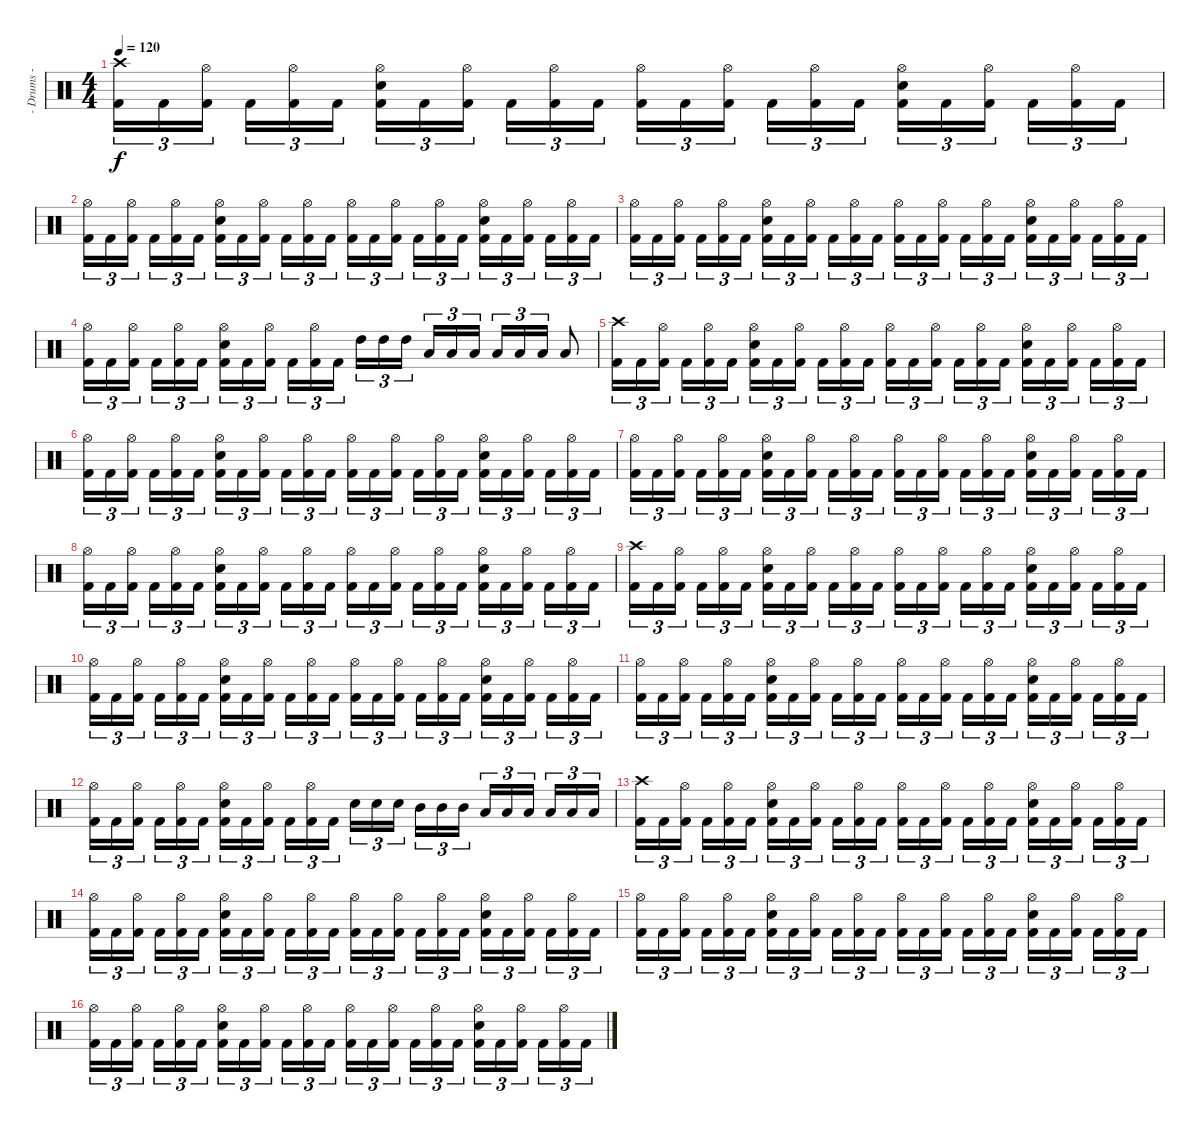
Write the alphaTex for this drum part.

\track ("- Drums -" "- Drums -") {instrument percussion}
\staff {score}
\articulation defaults
\ts (4 4)
\tempo 120
\clef neutral
\ks c
("Crash high (hit)" "Kick (hit) 2").16{tu (3 2) dy f} "Kick (hit) 2".16{tu (3 2)} ("Hi-Hat (open)" "Kick (hit) 2").16{tu (3 2)} "Kick (hit) 2".16{tu (3 2)} ("Hi-Hat (open)" "Kick (hit) 2").16{tu (3 2)} "Kick (hit) 2".16{tu (3 2)} ("Hi-Hat (open)" "Electric Snare (hit)" "Kick (hit) 2").16{tu (3 2)} "Kick (hit) 2".16{tu (3 2)} ("Hi-Hat (open)" "Kick (hit) 2").16{tu (3 2)} "Kick (hit) 2".16{tu (3 2)} ("Hi-Hat (open)" "Kick (hit) 2").16{tu (3 2)} "Kick (hit) 2".16{tu (3 2)} ("Hi-Hat (open)" "Kick (hit) 2").16{tu (3 2)} "Kick (hit) 2".16{tu (3 2)} ("Hi-Hat (open)" "Kick (hit) 2").16{tu (3 2)} "Kick (hit) 2".16{tu (3 2)} ("Hi-Hat (open)" "Kick (hit) 2").16{tu (3 2)} "Kick (hit) 2".16{tu (3 2)} ("Hi-Hat (open)" "Electric Snare (hit)" "Kick (hit) 2").16{tu (3 2)} "Kick (hit) 2".16{tu (3 2)} ("Hi-Hat (open)" "Kick (hit) 2").16{tu (3 2)} "Kick (hit) 2".16{tu (3 2)} ("Hi-Hat (open)" "Kick (hit) 2").16{tu (3 2)} "Kick (hit) 2".16{tu (3 2)} |
("Hi-Hat (open)" "Kick (hit) 2").16{tu (3 2)} "Kick (hit) 2".16{tu (3 2)} ("Hi-Hat (open)" "Kick (hit) 2").16{tu (3 2)} "Kick (hit) 2".16{tu (3 2)} ("Hi-Hat (open)" "Kick (hit) 2").16{tu (3 2)} "Kick (hit) 2".16{tu (3 2)} ("Hi-Hat (open)" "Electric Snare (hit)" "Kick (hit) 2").16{tu (3 2)} "Kick (hit) 2".16{tu (3 2)} ("Hi-Hat (open)" "Kick (hit) 2").16{tu (3 2)} "Kick (hit) 2".16{tu (3 2)} ("Hi-Hat (open)" "Kick (hit) 2").16{tu (3 2)} "Kick (hit) 2".16{tu (3 2)} ("Hi-Hat (open)" "Kick (hit) 2").16{tu (3 2)} "Kick (hit) 2".16{tu (3 2)} ("Hi-Hat (open)" "Kick (hit) 2").16{tu (3 2)} "Kick (hit) 2".16{tu (3 2)} ("Hi-Hat (open)" "Kick (hit) 2").16{tu (3 2)} "Kick (hit) 2".16{tu (3 2)} ("Hi-Hat (open)" "Electric Snare (hit)" "Kick (hit) 2").16{tu (3 2)} "Kick (hit) 2".16{tu (3 2)} ("Hi-Hat (open)" "Kick (hit) 2").16{tu (3 2)} "Kick (hit) 2".16{tu (3 2)} ("Hi-Hat (open)" "Kick (hit) 2").16{tu (3 2)} "Kick (hit) 2".16{tu (3 2)} |
("Hi-Hat (open)" "Kick (hit) 2").16{tu (3 2)} "Kick (hit) 2".16{tu (3 2)} ("Hi-Hat (open)" "Kick (hit) 2").16{tu (3 2)} "Kick (hit) 2".16{tu (3 2)} ("Hi-Hat (open)" "Kick (hit) 2").16{tu (3 2)} "Kick (hit) 2".16{tu (3 2)} ("Hi-Hat (open)" "Electric Snare (hit)" "Kick (hit) 2").16{tu (3 2)} "Kick (hit) 2".16{tu (3 2)} ("Hi-Hat (open)" "Kick (hit) 2").16{tu (3 2)} "Kick (hit) 2".16{tu (3 2)} ("Hi-Hat (open)" "Kick (hit) 2").16{tu (3 2)} "Kick (hit) 2".16{tu (3 2)} ("Hi-Hat (open)" "Kick (hit) 2").16{tu (3 2)} "Kick (hit) 2".16{tu (3 2)} ("Hi-Hat (open)" "Kick (hit) 2").16{tu (3 2)} "Kick (hit) 2".16{tu (3 2)} ("Hi-Hat (open)" "Kick (hit) 2").16{tu (3 2)} "Kick (hit) 2".16{tu (3 2)} ("Hi-Hat (open)" "Electric Snare (hit)" "Kick (hit) 2").16{tu (3 2)} "Kick (hit) 2".16{tu (3 2)} ("Hi-Hat (open)" "Kick (hit) 2").16{tu (3 2)} "Kick (hit) 2".16{tu (3 2)} ("Hi-Hat (open)" "Kick (hit) 2").16{tu (3 2)} "Kick (hit) 2".16{tu (3 2)} |
("Hi-Hat (open)" "Kick (hit) 2").16{tu (3 2)} "Kick (hit) 2".16{tu (3 2)} ("Hi-Hat (open)" "Kick (hit) 2").16{tu (3 2)} "Kick (hit) 2".16{tu (3 2)} ("Hi-Hat (open)" "Kick (hit) 2").16{tu (3 2)} "Kick (hit) 2".16{tu (3 2)} ("Hi-Hat (open)" "Electric Snare (hit)" "Kick (hit) 2").16{tu (3 2)} "Kick (hit) 2".16{tu (3 2)} ("Hi-Hat (open)" "Kick (hit) 2").16{tu (3 2)} "Kick (hit) 2".16{tu (3 2)} ("Hi-Hat (open)" "Kick (hit) 2").16{tu (3 2)} "Kick (hit) 2".16{tu (3 2)} "High Tom (hit)".16{tu (3 2)} "High Tom (hit)".16{tu (3 2)} "High Tom (hit)".16{tu (3 2)} "Low Tom (hit)".16{tu (3 2)} "Low Tom (hit)".16{tu (3 2)} "Low Tom (hit)".16{tu (3 2)} "Low Floor Tom (hit)".16{tu (3 2)} "Low Floor Tom (hit)".16{tu (3 2)} "Low Floor Tom (hit)".16{tu (3 2)} "Low Floor Tom (hit)".8 |
("Crash high (hit)" "Kick (hit) 2").16{tu (3 2)} "Kick (hit) 2".16{tu (3 2)} ("Hi-Hat (open)" "Kick (hit) 2").16{tu (3 2)} "Kick (hit) 2".16{tu (3 2)} ("Hi-Hat (open)" "Kick (hit) 2").16{tu (3 2)} "Kick (hit) 2".16{tu (3 2)} ("Hi-Hat (open)" "Electric Snare (hit)" "Kick (hit) 2").16{tu (3 2)} "Kick (hit) 2".16{tu (3 2)} ("Hi-Hat (open)" "Kick (hit) 2").16{tu (3 2)} "Kick (hit) 2".16{tu (3 2)} ("Hi-Hat (open)" "Kick (hit) 2").16{tu (3 2)} "Kick (hit) 2".16{tu (3 2)} ("Hi-Hat (open)" "Kick (hit) 2").16{tu (3 2)} "Kick (hit) 2".16{tu (3 2)} ("Hi-Hat (open)" "Kick (hit) 2").16{tu (3 2)} "Kick (hit) 2".16{tu (3 2)} ("Hi-Hat (open)" "Kick (hit) 2").16{tu (3 2)} "Kick (hit) 2".16{tu (3 2)} ("Hi-Hat (open)" "Electric Snare (hit)" "Kick (hit) 2").16{tu (3 2)} "Kick (hit) 2".16{tu (3 2)} ("Hi-Hat (open)" "Kick (hit) 2").16{tu (3 2)} "Kick (hit) 2".16{tu (3 2)} ("Hi-Hat (open)" "Kick (hit) 2").16{tu (3 2)} "Kick (hit) 2".16{tu (3 2)} |
("Hi-Hat (open)" "Kick (hit) 2").16{tu (3 2)} "Kick (hit) 2".16{tu (3 2)} ("Hi-Hat (open)" "Kick (hit) 2").16{tu (3 2)} "Kick (hit) 2".16{tu (3 2)} ("Hi-Hat (open)" "Kick (hit) 2").16{tu (3 2)} "Kick (hit) 2".16{tu (3 2)} ("Hi-Hat (open)" "Electric Snare (hit)" "Kick (hit) 2").16{tu (3 2)} "Kick (hit) 2".16{tu (3 2)} ("Hi-Hat (open)" "Kick (hit) 2").16{tu (3 2)} "Kick (hit) 2".16{tu (3 2)} ("Hi-Hat (open)" "Kick (hit) 2").16{tu (3 2)} "Kick (hit) 2".16{tu (3 2)} ("Hi-Hat (open)" "Kick (hit) 2").16{tu (3 2)} "Kick (hit) 2".16{tu (3 2)} ("Hi-Hat (open)" "Kick (hit) 2").16{tu (3 2)} "Kick (hit) 2".16{tu (3 2)} ("Hi-Hat (open)" "Kick (hit) 2").16{tu (3 2)} "Kick (hit) 2".16{tu (3 2)} ("Hi-Hat (open)" "Electric Snare (hit)" "Kick (hit) 2").16{tu (3 2)} "Kick (hit) 2".16{tu (3 2)} ("Hi-Hat (open)" "Kick (hit) 2").16{tu (3 2)} "Kick (hit) 2".16{tu (3 2)} ("Hi-Hat (open)" "Kick (hit) 2").16{tu (3 2)} "Kick (hit) 2".16{tu (3 2)} |
("Hi-Hat (open)" "Kick (hit) 2").16{tu (3 2)} "Kick (hit) 2".16{tu (3 2)} ("Hi-Hat (open)" "Kick (hit) 2").16{tu (3 2)} "Kick (hit) 2".16{tu (3 2)} ("Hi-Hat (open)" "Kick (hit) 2").16{tu (3 2)} "Kick (hit) 2".16{tu (3 2)} ("Hi-Hat (open)" "Electric Snare (hit)" "Kick (hit) 2").16{tu (3 2)} "Kick (hit) 2".16{tu (3 2)} ("Hi-Hat (open)" "Kick (hit) 2").16{tu (3 2)} "Kick (hit) 2".16{tu (3 2)} ("Hi-Hat (open)" "Kick (hit) 2").16{tu (3 2)} "Kick (hit) 2".16{tu (3 2)} ("Hi-Hat (open)" "Kick (hit) 2").16{tu (3 2)} "Kick (hit) 2".16{tu (3 2)} ("Hi-Hat (open)" "Kick (hit) 2").16{tu (3 2)} "Kick (hit) 2".16{tu (3 2)} ("Hi-Hat (open)" "Kick (hit) 2").16{tu (3 2)} "Kick (hit) 2".16{tu (3 2)} ("Hi-Hat (open)" "Electric Snare (hit)" "Kick (hit) 2").16{tu (3 2)} "Kick (hit) 2".16{tu (3 2)} ("Hi-Hat (open)" "Kick (hit) 2").16{tu (3 2)} "Kick (hit) 2".16{tu (3 2)} ("Hi-Hat (open)" "Kick (hit) 2").16{tu (3 2)} "Kick (hit) 2".16{tu (3 2)} |
("Hi-Hat (open)" "Kick (hit) 2").16{tu (3 2)} "Kick (hit) 2".16{tu (3 2)} ("Hi-Hat (open)" "Kick (hit) 2").16{tu (3 2)} "Kick (hit) 2".16{tu (3 2)} ("Hi-Hat (open)" "Kick (hit) 2").16{tu (3 2)} "Kick (hit) 2".16{tu (3 2)} ("Hi-Hat (open)" "Electric Snare (hit)" "Kick (hit) 2").16{tu (3 2)} "Kick (hit) 2".16{tu (3 2)} ("Hi-Hat (open)" "Kick (hit) 2").16{tu (3 2)} "Kick (hit) 2".16{tu (3 2)} ("Hi-Hat (open)" "Kick (hit) 2").16{tu (3 2)} "Kick (hit) 2".16{tu (3 2)} ("Hi-Hat (open)" "Kick (hit) 2").16{tu (3 2)} "Kick (hit) 2".16{tu (3 2)} ("Hi-Hat (open)" "Kick (hit) 2").16{tu (3 2)} "Kick (hit) 2".16{tu (3 2)} ("Hi-Hat (open)" "Kick (hit) 2").16{tu (3 2)} "Kick (hit) 2".16{tu (3 2)} ("Hi-Hat (open)" "Electric Snare (hit)" "Kick (hit) 2").16{tu (3 2)} "Kick (hit) 2".16{tu (3 2)} ("Hi-Hat (open)" "Kick (hit) 2").16{tu (3 2)} "Kick (hit) 2".16{tu (3 2)} ("Hi-Hat (open)" "Kick (hit) 2").16{tu (3 2)} "Kick (hit) 2".16{tu (3 2)} |
("Crash high (hit)" "Kick (hit) 2").16{tu (3 2)} "Kick (hit) 2".16{tu (3 2)} ("Hi-Hat (open)" "Kick (hit) 2").16{tu (3 2)} "Kick (hit) 2".16{tu (3 2)} ("Hi-Hat (open)" "Kick (hit) 2").16{tu (3 2)} "Kick (hit) 2".16{tu (3 2)} ("Hi-Hat (open)" "Electric Snare (hit)" "Kick (hit) 2").16{tu (3 2)} "Kick (hit) 2".16{tu (3 2)} ("Hi-Hat (open)" "Kick (hit) 2").16{tu (3 2)} "Kick (hit) 2".16{tu (3 2)} ("Hi-Hat (open)" "Kick (hit) 2").16{tu (3 2)} "Kick (hit) 2".16{tu (3 2)} ("Hi-Hat (open)" "Kick (hit) 2").16{tu (3 2)} "Kick (hit) 2".16{tu (3 2)} ("Hi-Hat (open)" "Kick (hit) 2").16{tu (3 2)} "Kick (hit) 2".16{tu (3 2)} ("Hi-Hat (open)" "Kick (hit) 2").16{tu (3 2)} "Kick (hit) 2".16{tu (3 2)} ("Hi-Hat (open)" "Electric Snare (hit)" "Kick (hit) 2").16{tu (3 2)} "Kick (hit) 2".16{tu (3 2)} ("Hi-Hat (open)" "Kick (hit) 2").16{tu (3 2)} "Kick (hit) 2".16{tu (3 2)} ("Hi-Hat (open)" "Kick (hit) 2").16{tu (3 2)} "Kick (hit) 2".16{tu (3 2)} |
("Hi-Hat (open)" "Kick (hit) 2").16{tu (3 2)} "Kick (hit) 2".16{tu (3 2)} ("Hi-Hat (open)" "Kick (hit) 2").16{tu (3 2)} "Kick (hit) 2".16{tu (3 2)} ("Hi-Hat (open)" "Kick (hit) 2").16{tu (3 2)} "Kick (hit) 2".16{tu (3 2)} ("Hi-Hat (open)" "Electric Snare (hit)" "Kick (hit) 2").16{tu (3 2)} "Kick (hit) 2".16{tu (3 2)} ("Hi-Hat (open)" "Kick (hit) 2").16{tu (3 2)} "Kick (hit) 2".16{tu (3 2)} ("Hi-Hat (open)" "Kick (hit) 2").16{tu (3 2)} "Kick (hit) 2".16{tu (3 2)} ("Hi-Hat (open)" "Kick (hit) 2").16{tu (3 2)} "Kick (hit) 2".16{tu (3 2)} ("Hi-Hat (open)" "Kick (hit) 2").16{tu (3 2)} "Kick (hit) 2".16{tu (3 2)} ("Hi-Hat (open)" "Kick (hit) 2").16{tu (3 2)} "Kick (hit) 2".16{tu (3 2)} ("Hi-Hat (open)" "Electric Snare (hit)" "Kick (hit) 2").16{tu (3 2)} "Kick (hit) 2".16{tu (3 2)} ("Hi-Hat (open)" "Kick (hit) 2").16{tu (3 2)} "Kick (hit) 2".16{tu (3 2)} ("Hi-Hat (open)" "Kick (hit) 2").16{tu (3 2)} "Kick (hit) 2".16{tu (3 2)} |
("Hi-Hat (open)" "Kick (hit) 2").16{tu (3 2)} "Kick (hit) 2".16{tu (3 2)} ("Hi-Hat (open)" "Kick (hit) 2").16{tu (3 2)} "Kick (hit) 2".16{tu (3 2)} ("Hi-Hat (open)" "Kick (hit) 2").16{tu (3 2)} "Kick (hit) 2".16{tu (3 2)} ("Hi-Hat (open)" "Electric Snare (hit)" "Kick (hit) 2").16{tu (3 2)} "Kick (hit) 2".16{tu (3 2)} ("Hi-Hat (open)" "Kick (hit) 2").16{tu (3 2)} "Kick (hit) 2".16{tu (3 2)} ("Hi-Hat (open)" "Kick (hit) 2").16{tu (3 2)} "Kick (hit) 2".16{tu (3 2)} ("Hi-Hat (open)" "Kick (hit) 2").16{tu (3 2)} "Kick (hit) 2".16{tu (3 2)} ("Hi-Hat (open)" "Kick (hit) 2").16{tu (3 2)} "Kick (hit) 2".16{tu (3 2)} ("Hi-Hat (open)" "Kick (hit) 2").16{tu (3 2)} "Kick (hit) 2".16{tu (3 2)} ("Hi-Hat (open)" "Electric Snare (hit)" "Kick (hit) 2").16{tu (3 2)} "Kick (hit) 2".16{tu (3 2)} ("Hi-Hat (open)" "Kick (hit) 2").16{tu (3 2)} "Kick (hit) 2".16{tu (3 2)} ("Hi-Hat (open)" "Kick (hit) 2").16{tu (3 2)} "Kick (hit) 2".16{tu (3 2)} |
("Hi-Hat (open)" "Kick (hit) 2").16{tu (3 2)} "Kick (hit) 2".16{tu (3 2)} ("Hi-Hat (open)" "Kick (hit) 2").16{tu (3 2)} "Kick (hit) 2".16{tu (3 2)} ("Hi-Hat (open)" "Kick (hit) 2").16{tu (3 2)} "Kick (hit) 2".16{tu (3 2)} ("Hi-Hat (open)" "Electric Snare (hit)" "Kick (hit) 2").16{tu (3 2)} "Kick (hit) 2".16{tu (3 2)} ("Hi-Hat (open)" "Kick (hit) 2").16{tu (3 2)} "Kick (hit) 2".16{tu (3 2)} ("Hi-Hat (open)" "Kick (hit) 2").16{tu (3 2)} "Kick (hit) 2".16{tu (3 2)} "Electric Snare (hit)".16{tu (3 2)} "Electric Snare (hit)".16{tu (3 2)} "Electric Snare (hit)".16{tu (3 2)} "Mid Tom (hit)".16{tu (3 2)} "Mid Tom (hit)".16{tu (3 2)} "Mid Tom (hit)".16{tu (3 2)} "Low Tom (hit)".16{tu (3 2)} "Low Tom (hit)".16{tu (3 2)} "Low Tom (hit)".16{tu (3 2)} "Low Floor Tom (hit)".16{tu (3 2)} "Low Floor Tom (hit)".16{tu (3 2)} "Low Floor Tom (hit)".16{tu (3 2)} |
("Crash high (hit)" "Kick (hit) 2").16{tu (3 2)} "Kick (hit) 2".16{tu (3 2)} ("Hi-Hat (open)" "Kick (hit) 2").16{tu (3 2)} "Kick (hit) 2".16{tu (3 2)} ("Hi-Hat (open)" "Kick (hit) 2").16{tu (3 2)} "Kick (hit) 2".16{tu (3 2)} ("Hi-Hat (open)" "Electric Snare (hit)" "Kick (hit) 2").16{tu (3 2)} "Kick (hit) 2".16{tu (3 2)} ("Hi-Hat (open)" "Kick (hit) 2").16{tu (3 2)} "Kick (hit) 2".16{tu (3 2)} ("Hi-Hat (open)" "Kick (hit) 2").16{tu (3 2)} "Kick (hit) 2".16{tu (3 2)} ("Hi-Hat (open)" "Kick (hit) 2").16{tu (3 2)} "Kick (hit) 2".16{tu (3 2)} ("Hi-Hat (open)" "Kick (hit) 2").16{tu (3 2)} "Kick (hit) 2".16{tu (3 2)} ("Hi-Hat (open)" "Kick (hit) 2").16{tu (3 2)} "Kick (hit) 2".16{tu (3 2)} ("Hi-Hat (open)" "Electric Snare (hit)" "Kick (hit) 2").16{tu (3 2)} "Kick (hit) 2".16{tu (3 2)} ("Hi-Hat (open)" "Kick (hit) 2").16{tu (3 2)} "Kick (hit) 2".16{tu (3 2)} ("Hi-Hat (open)" "Kick (hit) 2").16{tu (3 2)} "Kick (hit) 2".16{tu (3 2)} |
("Hi-Hat (open)" "Kick (hit) 2").16{tu (3 2)} "Kick (hit) 2".16{tu (3 2)} ("Hi-Hat (open)" "Kick (hit) 2").16{tu (3 2)} "Kick (hit) 2".16{tu (3 2)} ("Hi-Hat (open)" "Kick (hit) 2").16{tu (3 2)} "Kick (hit) 2".16{tu (3 2)} ("Hi-Hat (open)" "Electric Snare (hit)" "Kick (hit) 2").16{tu (3 2)} "Kick (hit) 2".16{tu (3 2)} ("Hi-Hat (open)" "Kick (hit) 2").16{tu (3 2)} "Kick (hit) 2".16{tu (3 2)} ("Hi-Hat (open)" "Kick (hit) 2").16{tu (3 2)} "Kick (hit) 2".16{tu (3 2)} ("Hi-Hat (open)" "Kick (hit) 2").16{tu (3 2)} "Kick (hit) 2".16{tu (3 2)} ("Hi-Hat (open)" "Kick (hit) 2").16{tu (3 2)} "Kick (hit) 2".16{tu (3 2)} ("Hi-Hat (open)" "Kick (hit) 2").16{tu (3 2)} "Kick (hit) 2".16{tu (3 2)} ("Hi-Hat (open)" "Electric Snare (hit)" "Kick (hit) 2").16{tu (3 2)} "Kick (hit) 2".16{tu (3 2)} ("Hi-Hat (open)" "Kick (hit) 2").16{tu (3 2)} "Kick (hit) 2".16{tu (3 2)} ("Hi-Hat (open)" "Kick (hit) 2").16{tu (3 2)} "Kick (hit) 2".16{tu (3 2)} |
("Hi-Hat (open)" "Kick (hit) 2").16{tu (3 2)} "Kick (hit) 2".16{tu (3 2)} ("Hi-Hat (open)" "Kick (hit) 2").16{tu (3 2)} "Kick (hit) 2".16{tu (3 2)} ("Hi-Hat (open)" "Kick (hit) 2").16{tu (3 2)} "Kick (hit) 2".16{tu (3 2)} ("Hi-Hat (open)" "Electric Snare (hit)" "Kick (hit) 2").16{tu (3 2)} "Kick (hit) 2".16{tu (3 2)} ("Hi-Hat (open)" "Kick (hit) 2").16{tu (3 2)} "Kick (hit) 2".16{tu (3 2)} ("Hi-Hat (open)" "Kick (hit) 2").16{tu (3 2)} "Kick (hit) 2".16{tu (3 2)} ("Hi-Hat (open)" "Kick (hit) 2").16{tu (3 2)} "Kick (hit) 2".16{tu (3 2)} ("Hi-Hat (open)" "Kick (hit) 2").16{tu (3 2)} "Kick (hit) 2".16{tu (3 2)} ("Hi-Hat (open)" "Kick (hit) 2").16{tu (3 2)} "Kick (hit) 2".16{tu (3 2)} ("Hi-Hat (open)" "Electric Snare (hit)" "Kick (hit) 2").16{tu (3 2)} "Kick (hit) 2".16{tu (3 2)} ("Hi-Hat (open)" "Kick (hit) 2").16{tu (3 2)} "Kick (hit) 2".16{tu (3 2)} ("Hi-Hat (open)" "Kick (hit) 2").16{tu (3 2)} "Kick (hit) 2".16{tu (3 2)} |
("Hi-Hat (open)" "Kick (hit) 2").16{tu (3 2)} "Kick (hit) 2".16{tu (3 2)} ("Hi-Hat (open)" "Kick (hit) 2").16{tu (3 2)} "Kick (hit) 2".16{tu (3 2)} ("Hi-Hat (open)" "Kick (hit) 2").16{tu (3 2)} "Kick (hit) 2".16{tu (3 2)} ("Hi-Hat (open)" "Electric Snare (hit)" "Kick (hit) 2").16{tu (3 2)} "Kick (hit) 2".16{tu (3 2)} ("Hi-Hat (open)" "Kick (hit) 2").16{tu (3 2)} "Kick (hit) 2".16{tu (3 2)} ("Hi-Hat (open)" "Kick (hit) 2").16{tu (3 2)} "Kick (hit) 2".16{tu (3 2)} ("Hi-Hat (open)" "Kick (hit) 2").16{tu (3 2)} "Kick (hit) 2".16{tu (3 2)} ("Hi-Hat (open)" "Kick (hit) 2").16{tu (3 2)} "Kick (hit) 2".16{tu (3 2)} ("Hi-Hat (open)" "Kick (hit) 2").16{tu (3 2)} "Kick (hit) 2".16{tu (3 2)} ("Hi-Hat (open)" "Electric Snare (hit)" "Kick (hit) 2").16{tu (3 2)} "Kick (hit) 2".16{tu (3 2)} ("Hi-Hat (open)" "Kick (hit) 2").16{tu (3 2)} "Kick (hit) 2".16{tu (3 2)} ("Hi-Hat (open)" "Kick (hit) 2").16{tu (3 2)} "Kick (hit) 2".16{tu (3 2)}
